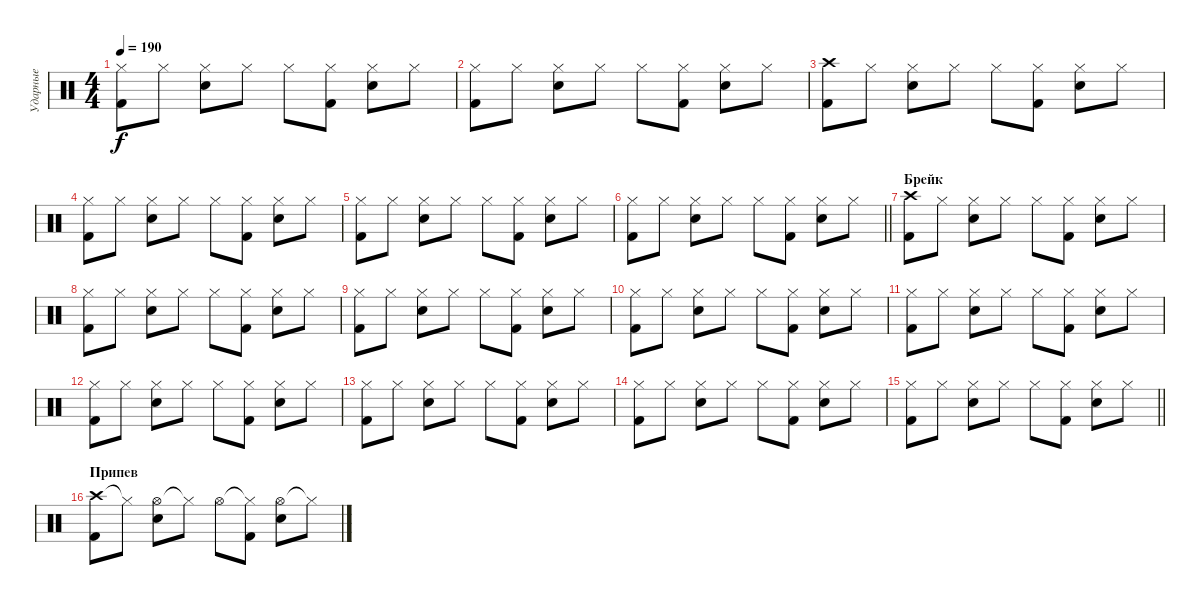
\track ("Ударные" "Ударные") {instrument percussion}
\staff {score}
\articulation defaults
\ts (4 4)
\tempo 190
\clef neutral
\ks c
("Hi-Hat (closed)" "Kick (hit) 2").8{dy f} "Hi-Hat (closed)".8 ("Hi-Hat (closed)" "Snare (hit) 2").8 "Hi-Hat (closed)".8 "Hi-Hat (closed)".8 ("Hi-Hat (closed)" "Kick (hit) 2").8 ("Hi-Hat (closed)" "Snare (hit) 2").8 "Hi-Hat (closed)".8 |
("Hi-Hat (closed)" "Kick (hit) 2").8 "Hi-Hat (closed)".8 ("Hi-Hat (closed)" "Snare (hit) 2").8 "Hi-Hat (closed)".8 "Hi-Hat (closed)".8 ("Hi-Hat (closed)" "Kick (hit) 2").8 ("Hi-Hat (closed)" "Snare (hit) 2").8 "Hi-Hat (closed)".8 |
("Crash high (hit)" "Kick (hit) 2").8 "Hi-Hat (closed)".8 ("Hi-Hat (closed)" "Snare (hit) 2").8 "Hi-Hat (closed)".8 "Hi-Hat (closed)".8 ("Hi-Hat (closed)" "Kick (hit) 2").8 ("Hi-Hat (closed)" "Snare (hit) 2").8 "Hi-Hat (closed)".8 |
("Hi-Hat (closed)" "Kick (hit) 2").8 "Hi-Hat (closed)".8 ("Hi-Hat (closed)" "Snare (hit) 2").8 "Hi-Hat (closed)".8 "Hi-Hat (closed)".8 ("Hi-Hat (closed)" "Kick (hit) 2").8 ("Hi-Hat (closed)" "Snare (hit) 2").8 "Hi-Hat (closed)".8 |
("Hi-Hat (closed)" "Kick (hit) 2").8 "Hi-Hat (closed)".8 ("Hi-Hat (closed)" "Snare (hit) 2").8 "Hi-Hat (closed)".8 "Hi-Hat (closed)".8 ("Hi-Hat (closed)" "Kick (hit) 2").8 ("Hi-Hat (closed)" "Snare (hit) 2").8 "Hi-Hat (closed)".8 |
\barLineRight lightlight
("Hi-Hat (closed)" "Kick (hit) 2").8 "Hi-Hat (closed)".8 ("Hi-Hat (closed)" "Snare (hit) 2").8 "Hi-Hat (closed)".8 "Hi-Hat (closed)".8 ("Hi-Hat (closed)" "Kick (hit) 2").8 ("Hi-Hat (closed)" "Snare (hit) 2").8 "Hi-Hat (closed)".8 |
\section ("" "Брейк")
("Crash high (hit)" "Kick (hit) 2").8 "Hi-Hat (closed)".8 ("Hi-Hat (closed)" "Snare (hit) 2").8 "Hi-Hat (closed)".8 "Hi-Hat (closed)".8 ("Hi-Hat (closed)" "Kick (hit) 2").8 ("Hi-Hat (closed)" "Snare (hit) 2").8 "Hi-Hat (closed)".8 |
("Hi-Hat (closed)" "Kick (hit) 2").8 "Hi-Hat (closed)".8 ("Hi-Hat (closed)" "Snare (hit) 2").8 "Hi-Hat (closed)".8 "Hi-Hat (closed)".8 ("Hi-Hat (closed)" "Kick (hit) 2").8 ("Hi-Hat (closed)" "Snare (hit) 2").8 "Hi-Hat (closed)".8 |
("Hi-Hat (closed)" "Kick (hit) 2").8 "Hi-Hat (closed)".8 ("Hi-Hat (closed)" "Snare (hit) 2").8 "Hi-Hat (closed)".8 "Hi-Hat (closed)".8 ("Hi-Hat (closed)" "Kick (hit) 2").8 ("Hi-Hat (closed)" "Snare (hit) 2").8 "Hi-Hat (closed)".8 |
("Hi-Hat (closed)" "Kick (hit) 2").8 "Hi-Hat (closed)".8 ("Hi-Hat (closed)" "Snare (hit) 2").8 "Hi-Hat (closed)".8 "Hi-Hat (closed)".8 ("Hi-Hat (closed)" "Kick (hit) 2").8 ("Hi-Hat (closed)" "Snare (hit) 2").8 "Hi-Hat (closed)".8 |
("Hi-Hat (closed)" "Kick (hit) 2").8 "Hi-Hat (closed)".8 ("Hi-Hat (closed)" "Snare (hit) 2").8 "Hi-Hat (closed)".8 "Hi-Hat (closed)".8 ("Hi-Hat (closed)" "Kick (hit) 2").8 ("Hi-Hat (closed)" "Snare (hit) 2").8 "Hi-Hat (closed)".8 |
("Hi-Hat (closed)" "Kick (hit) 2").8 "Hi-Hat (closed)".8 ("Hi-Hat (closed)" "Snare (hit) 2").8 "Hi-Hat (closed)".8 "Hi-Hat (closed)".8 ("Hi-Hat (closed)" "Kick (hit) 2").8 ("Hi-Hat (closed)" "Snare (hit) 2").8 "Hi-Hat (closed)".8 |
("Hi-Hat (closed)" "Kick (hit) 2").8 "Hi-Hat (closed)".8 ("Hi-Hat (closed)" "Snare (hit) 2").8 "Hi-Hat (closed)".8 "Hi-Hat (closed)".8 ("Hi-Hat (closed)" "Kick (hit) 2").8 ("Hi-Hat (closed)" "Snare (hit) 2").8 "Hi-Hat (closed)".8 |
("Hi-Hat (closed)" "Kick (hit) 2").8 "Hi-Hat (closed)".8 ("Hi-Hat (closed)" "Snare (hit) 2").8 "Hi-Hat (closed)".8 "Hi-Hat (closed)".8 ("Hi-Hat (closed)" "Kick (hit) 2").8 ("Hi-Hat (closed)" "Snare (hit) 2").8 "Hi-Hat (closed)".8 |
\barLineRight lightlight
("Hi-Hat (closed)" "Kick (hit) 2").8 "Hi-Hat (closed)".8 ("Hi-Hat (closed)" "Snare (hit) 2").8 "Hi-Hat (closed)".8 "Hi-Hat (closed)".8 ("Hi-Hat (closed)" "Kick (hit) 2").8 ("Hi-Hat (closed)" "Snare (hit) 2").8 "Hi-Hat (closed)".8 |
\section ("" "Припев")
("Crash high (hit)" "Kick (hit) 2").8 "Hi-Hat (closed)"{t}.8 ("Hi-Hat (open)" "Snare (hit) 2").8 "Hi-Hat (closed)"{t}.8 "Hi-Hat (open)".8 ("Hi-Hat (closed)"{t} "Kick (hit) 2").8 ("Hi-Hat (open)" "Snare (hit) 2").8 "Hi-Hat (closed)"{t}.8
